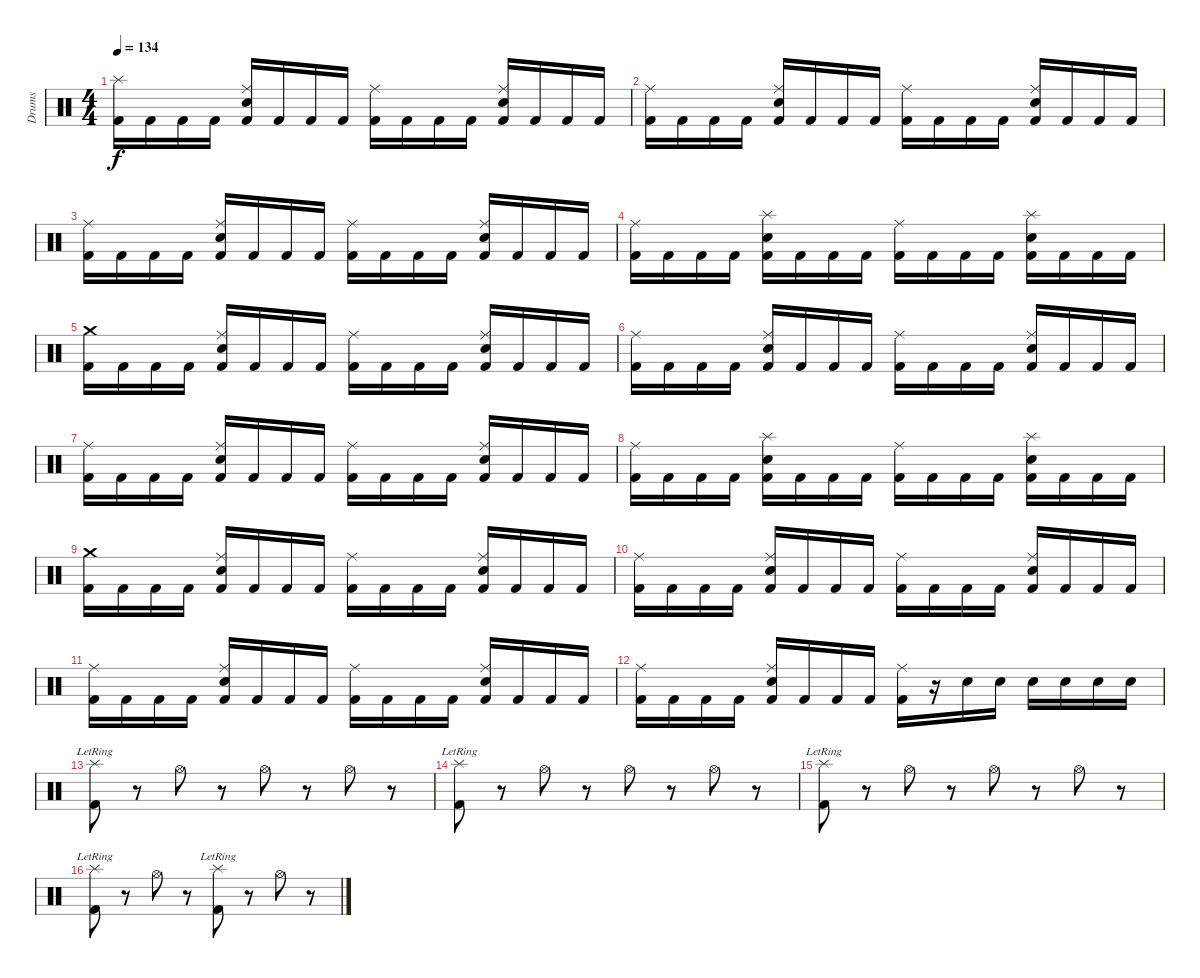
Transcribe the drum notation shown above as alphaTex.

\track ("Drums" "Drums") {instrument percussion}
\staff {score}
\articulation defaults
\ts (4 4)
\tempo 134
\clef neutral
\ks c
("Splash (hit)" "Kick (hit) 2").16{dy f} "Kick (hit) 2".16 "Kick (hit) 2".16 "Kick (hit) 2".16 ("Ride (middle)" "Snare (hit) 2" "Kick (hit) 2").16 "Kick (hit) 2".16 "Kick (hit) 2".16 "Kick (hit) 2".16 ("Ride (middle)" "Kick (hit) 2").16 "Kick (hit) 2".16 "Kick (hit) 2".16 "Kick (hit) 2".16 ("Ride (middle)" "Snare (hit) 2" "Kick (hit) 2").16 "Kick (hit) 2".16 "Kick (hit) 2".16 "Kick (hit) 2".16 |
("Ride (middle)" "Kick (hit) 2").16 "Kick (hit) 2".16 "Kick (hit) 2".16 "Kick (hit) 2".16 ("Ride (middle)" "Snare (hit) 2" "Kick (hit) 2").16 "Kick (hit) 2".16 "Kick (hit) 2".16 "Kick (hit) 2".16 ("Ride (middle)" "Kick (hit) 2").16 "Kick (hit) 2".16 "Kick (hit) 2".16 "Kick (hit) 2".16 ("Ride (middle)" "Snare (hit) 2" "Kick (hit) 2").16 "Kick (hit) 2".16 "Kick (hit) 2".16 "Kick (hit) 2".16 |
("Ride (middle)" "Kick (hit) 2").16 "Kick (hit) 2".16 "Kick (hit) 2".16 "Kick (hit) 2".16 ("Ride (middle)" "Snare (hit) 2" "Kick (hit) 2").16 "Kick (hit) 2".16 "Kick (hit) 2".16 "Kick (hit) 2".16 ("Ride (middle)" "Kick (hit) 2").16 "Kick (hit) 2".16 "Kick (hit) 2".16 "Kick (hit) 2".16 ("Ride (middle)" "Snare (hit) 2" "Kick (hit) 2").16 "Kick (hit) 2".16 "Kick (hit) 2".16 "Kick (hit) 2".16 |
("Ride (middle)" "Kick (hit) 2").16 "Kick (hit) 2".16 "Kick (hit) 2".16 "Kick (hit) 2".16 ("Splash (hit)" "Snare (hit) 2" "Kick (hit) 2").16 "Kick (hit) 2".16 "Kick (hit) 2".16 "Kick (hit) 2".16 ("Ride (middle)" "Kick (hit) 2").16 "Kick (hit) 2".16 "Kick (hit) 2".16 "Kick (hit) 2".16 ("Splash (hit)" "Snare (hit) 2" "Kick (hit) 2").16 "Kick (hit) 2".16 "Kick (hit) 2".16 "Kick (hit) 2".16 |
("Crash medium (hit)" "Kick (hit) 2").16 "Kick (hit) 2".16 "Kick (hit) 2".16 "Kick (hit) 2".16 ("Ride (middle)" "Snare (hit) 2" "Kick (hit) 2").16 "Kick (hit) 2".16 "Kick (hit) 2".16 "Kick (hit) 2".16 ("Ride (middle)" "Kick (hit) 2").16 "Kick (hit) 2".16 "Kick (hit) 2".16 "Kick (hit) 2".16 ("Ride (middle)" "Snare (hit) 2" "Kick (hit) 2").16 "Kick (hit) 2".16 "Kick (hit) 2".16 "Kick (hit) 2".16 |
("Ride (middle)" "Kick (hit) 2").16 "Kick (hit) 2".16 "Kick (hit) 2".16 "Kick (hit) 2".16 ("Ride (middle)" "Snare (hit) 2" "Kick (hit) 2").16 "Kick (hit) 2".16 "Kick (hit) 2".16 "Kick (hit) 2".16 ("Ride (middle)" "Kick (hit) 2").16 "Kick (hit) 2".16 "Kick (hit) 2".16 "Kick (hit) 2".16 ("Ride (middle)" "Snare (hit) 2" "Kick (hit) 2").16 "Kick (hit) 2".16 "Kick (hit) 2".16 "Kick (hit) 2".16 |
("Ride (middle)" "Kick (hit) 2").16 "Kick (hit) 2".16 "Kick (hit) 2".16 "Kick (hit) 2".16 ("Ride (middle)" "Snare (hit) 2" "Kick (hit) 2").16 "Kick (hit) 2".16 "Kick (hit) 2".16 "Kick (hit) 2".16 ("Ride (middle)" "Kick (hit) 2").16 "Kick (hit) 2".16 "Kick (hit) 2".16 "Kick (hit) 2".16 ("Ride (middle)" "Snare (hit) 2" "Kick (hit) 2").16 "Kick (hit) 2".16 "Kick (hit) 2".16 "Kick (hit) 2".16 |
("Ride (middle)" "Kick (hit) 2").16 "Kick (hit) 2".16 "Kick (hit) 2".16 "Kick (hit) 2".16 ("Splash (hit)" "Snare (hit) 2" "Kick (hit) 2").16 "Kick (hit) 2".16 "Kick (hit) 2".16 "Kick (hit) 2".16 ("Ride (middle)" "Kick (hit) 2").16 "Kick (hit) 2".16 "Kick (hit) 2".16 "Kick (hit) 2".16 ("Splash (hit)" "Snare (hit) 2" "Kick (hit) 2").16 "Kick (hit) 2".16 "Kick (hit) 2".16 "Kick (hit) 2".16 |
("Crash medium (hit)" "Kick (hit) 2").16 "Kick (hit) 2".16 "Kick (hit) 2".16 "Kick (hit) 2".16 ("Ride (middle)" "Snare (hit) 2" "Kick (hit) 2").16 "Kick (hit) 2".16 "Kick (hit) 2".16 "Kick (hit) 2".16 ("Ride (middle)" "Kick (hit) 2").16 "Kick (hit) 2".16 "Kick (hit) 2".16 "Kick (hit) 2".16 ("Ride (middle)" "Snare (hit) 2" "Kick (hit) 2").16 "Kick (hit) 2".16 "Kick (hit) 2".16 "Kick (hit) 2".16 |
("Ride (middle)" "Kick (hit) 2").16 "Kick (hit) 2".16 "Kick (hit) 2".16 "Kick (hit) 2".16 ("Ride (middle)" "Snare (hit) 2" "Kick (hit) 2").16 "Kick (hit) 2".16 "Kick (hit) 2".16 "Kick (hit) 2".16 ("Ride (middle)" "Kick (hit) 2").16 "Kick (hit) 2".16 "Kick (hit) 2".16 "Kick (hit) 2".16 ("Ride (middle)" "Snare (hit) 2" "Kick (hit) 2").16 "Kick (hit) 2".16 "Kick (hit) 2".16 "Kick (hit) 2".16 |
("Ride (middle)" "Kick (hit) 2").16 "Kick (hit) 2".16 "Kick (hit) 2".16 "Kick (hit) 2".16 ("Ride (middle)" "Snare (hit) 2" "Kick (hit) 2").16 "Kick (hit) 2".16 "Kick (hit) 2".16 "Kick (hit) 2".16 ("Ride (middle)" "Kick (hit) 2").16 "Kick (hit) 2".16 "Kick (hit) 2".16 "Kick (hit) 2".16 ("Ride (middle)" "Snare (hit) 2" "Kick (hit) 2").16 "Kick (hit) 2".16 "Kick (hit) 2".16 "Kick (hit) 2".16 |
("Ride (middle)" "Kick (hit) 2").16 "Kick (hit) 2".16 "Kick (hit) 2".16 "Kick (hit) 2".16 ("Ride (middle)" "Snare (hit) 2" "Kick (hit) 2").16 "Kick (hit) 2".16 "Kick (hit) 2".16 "Kick (hit) 2".16 ("Ride (middle)" "Kick (hit) 2").16 r.16 "Snare (hit) 2".16 "Snare (hit) 2".16 "Snare (hit) 2".16 "Snare (hit) 2".16 "Snare (hit) 2".16 "Snare (hit) 2".16 |
("Splash (hit)"{lr} "Kick (hit) 2").8 r.8 "Hi-Hat (open)".8 r.8 "Hi-Hat (open)".8 r.8 "Hi-Hat (open)".8 r.8 |
("Splash (hit)"{lr} "Kick (hit) 2").8 r.8 "Hi-Hat (open)".8 r.8 "Hi-Hat (open)".8 r.8 "Hi-Hat (open)".8 r.8 |
("Splash (hit)"{lr} "Kick (hit) 2").8 r.8 "Hi-Hat (open)".8 r.8 "Hi-Hat (open)".8 r.8 "Hi-Hat (open)".8 r.8 |
("Splash (hit)"{lr} "Kick (hit) 2").8 r.8 "Hi-Hat (open)".8 r.8 ("Splash (hit)"{lr} "Kick (hit) 2").8 r.8 "Hi-Hat (open)".8 r.8
